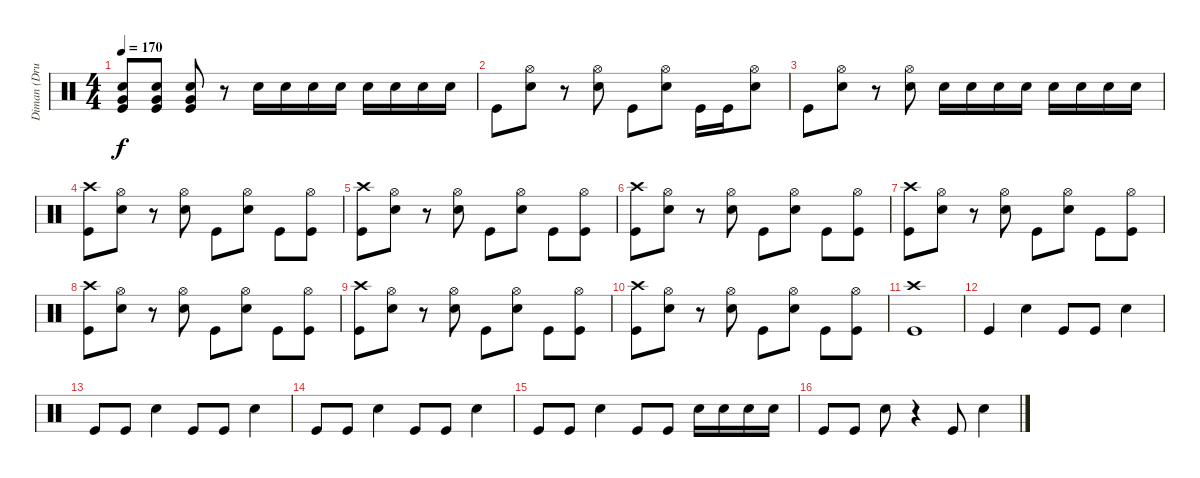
\track ("Diman (Drums)" "Diman (Dru") {instrument percussion}
\staff {score}
\articulation defaults
\ts (4 4)
\tempo 170
\clef neutral
\ks c
("Kick (hit)" "Snare (hit) 2" "Very Low Tom (hit)").8{dy f} ("Snare (hit) 2" "Kick (hit)" "Very Low Tom (hit)").8 ("Very Low Tom (hit)" "Snare (hit) 2" "Kick (hit)").8 r.8 "Snare (hit) 2".16 "Snare (hit) 2".16 "Snare (hit) 2".16 "Snare (hit) 2".16 "Snare (hit) 2".16 "Snare (hit) 2".16 "Snare (hit) 2".16 "Snare (hit) 2".16 |
"Kick (hit)".8 ("Snare (hit) 2" "Hi-Hat (open)").8 r.8 ("Snare (hit) 2" "Hi-Hat (open)").8 "Kick (hit)".8 ("Snare (hit) 2" "Hi-Hat (open)").8 "Kick (hit)".16 "Kick (hit)".16 ("Snare (hit) 2" "Hi-Hat (open)").8 |
"Kick (hit)".8 ("Snare (hit) 2" "Hi-Hat (open)").8 r.8 ("Snare (hit) 2" "Hi-Hat (open)").8 "Snare (hit) 2".16 "Snare (hit) 2".16 "Snare (hit) 2".16 "Snare (hit) 2".16 "Snare (hit) 2".16 "Snare (hit) 2".16 "Snare (hit) 2".16 "Snare (hit) 2".16 |
("Kick (hit)" "Crash high (hit)").8 ("Snare (hit) 2" "Hi-Hat (open)").8 r.8 ("Snare (hit) 2" "Hi-Hat (open)").8 "Kick (hit)".8 ("Snare (hit) 2" "Hi-Hat (open)").8 "Kick (hit)".8 ("Hi-Hat (open)" "Kick (hit)").8 |
("Kick (hit)" "Crash high (hit)").8 ("Snare (hit) 2" "Hi-Hat (open)").8 r.8 ("Snare (hit) 2" "Hi-Hat (open)").8 "Kick (hit)".8 ("Snare (hit) 2" "Hi-Hat (open)").8 "Kick (hit)".8 ("Hi-Hat (open)" "Kick (hit)").8 |
("Kick (hit)" "Crash high (hit)").8 ("Snare (hit) 2" "Hi-Hat (open)").8 r.8 ("Snare (hit) 2" "Hi-Hat (open)").8 "Kick (hit)".8 ("Snare (hit) 2" "Hi-Hat (open)").8 "Kick (hit)".8 ("Hi-Hat (open)" "Kick (hit)").8 |
("Kick (hit)" "Crash high (hit)").8 ("Snare (hit) 2" "Hi-Hat (open)").8 r.8 ("Snare (hit) 2" "Hi-Hat (open)").8 "Kick (hit)".8 ("Snare (hit) 2" "Hi-Hat (open)").8 "Kick (hit)".8 ("Hi-Hat (open)" "Kick (hit)").8 |
("Kick (hit)" "Crash high (hit)").8 ("Snare (hit) 2" "Hi-Hat (open)").8 r.8 ("Snare (hit) 2" "Hi-Hat (open)").8 "Kick (hit)".8 ("Snare (hit) 2" "Hi-Hat (open)").8 "Kick (hit)".8 ("Hi-Hat (open)" "Kick (hit)").8 |
("Kick (hit)" "Crash high (hit)").8 ("Snare (hit) 2" "Hi-Hat (open)").8 r.8 ("Snare (hit) 2" "Hi-Hat (open)").8 "Kick (hit)".8 ("Snare (hit) 2" "Hi-Hat (open)").8 "Kick (hit)".8 ("Hi-Hat (open)" "Kick (hit)").8 |
("Kick (hit)" "Crash high (hit)").8 ("Snare (hit) 2" "Hi-Hat (open)").8 r.8 ("Snare (hit) 2" "Hi-Hat (open)").8 "Kick (hit)".8 ("Snare (hit) 2" "Hi-Hat (open)").8 "Kick (hit)".8 ("Hi-Hat (open)" "Kick (hit)").8 |
("Kick (hit)" "Crash high (hit)").1 |
"Kick (hit)".4 "Snare (hit) 2".4 "Kick (hit)".8 "Kick (hit)".8 "Snare (hit) 2".4 |
"Kick (hit)".8 "Kick (hit)".8 "Snare (hit) 2".4 "Kick (hit)".8 "Kick (hit)".8 "Snare (hit) 2".4 |
"Kick (hit)".8 "Kick (hit)".8 "Snare (hit) 2".4 "Kick (hit)".8 "Kick (hit)".8 "Snare (hit) 2".4 |
"Kick (hit)".8 "Kick (hit)".8 "Snare (hit) 2".4 "Kick (hit)".8 "Kick (hit)".8 "Snare (hit) 2".16 "Snare (hit) 2".16 "Snare (hit) 2".16 "Snare (hit) 2".16 |
"Kick (hit)".8 "Kick (hit)".8 "Snare (hit) 2".8 r.4 "Kick (hit)".8 "Snare (hit) 2".4
